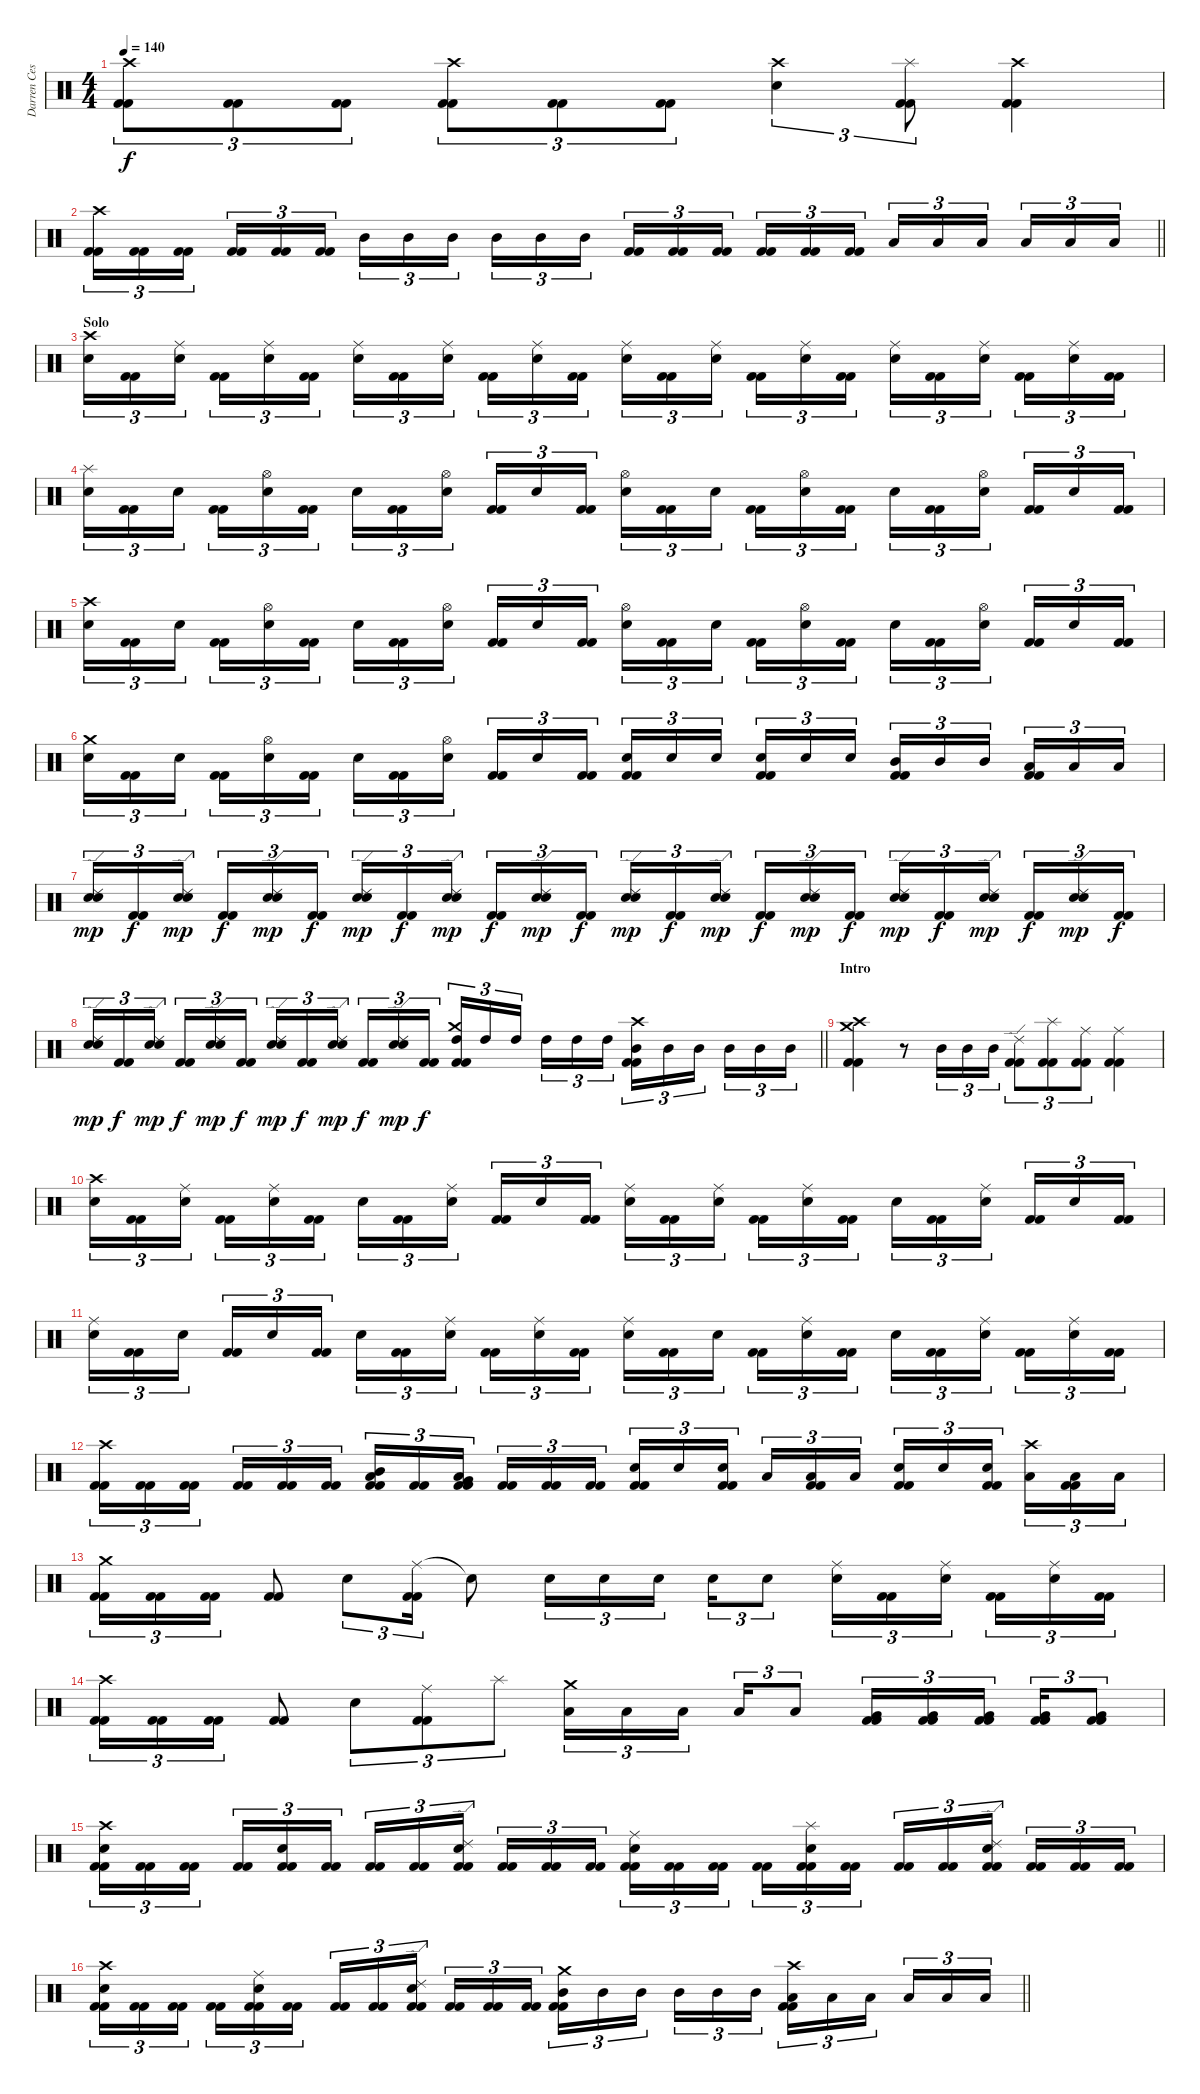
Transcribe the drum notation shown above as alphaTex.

\track ("Darren Cesca" "Darren Ces") {instrument percussion}
\staff {score}
\articulation defaults
\ts (4 4)
\tempo 140
\clef neutral
\ks c
("Crash high (hit)" "Kick (hit) 2" "Kick (hit) 2").8{tu (3 2) dy f} ("Kick (hit) 2" "Kick (hit) 2").8{tu (3 2)} ("Kick (hit) 2" "Kick (hit) 2").8{tu (3 2)} ("Crash high (hit)" "Kick (hit) 2" "Kick (hit) 2").8{tu (3 2)} ("Kick (hit) 2" "Kick (hit) 2").8{tu (3 2)} ("Kick (hit) 2" "Kick (hit) 2").8{tu (3 2)} ("Crash high (hit)" "Electric Snare (hit)").4{tu (3 2)} ("Splash (hit)" "Kick (hit) 2" "Kick (hit) 2").8{tu (3 2)} ("Crash high (hit)" "Kick (hit) 2" "Kick (hit) 2").4 |
\barLineRight lightlight
("Crash high (hit)" "Kick (hit) 2" "Kick (hit) 2").16{tu (3 2)} ("Kick (hit) 2" "Kick (hit) 2").16{tu (3 2)} ("Kick (hit) 2" "Kick (hit) 2").16{tu (3 2) beam splitsecondary} ("Kick (hit) 2" "Kick (hit) 2").16{tu (3 2)} ("Kick (hit) 2" "Kick (hit) 2").16{tu (3 2)} ("Kick (hit) 2" "Kick (hit) 2").16{tu (3 2)} "Mid Tom (hit)".16{tu (3 2)} "Mid Tom (hit)".16{tu (3 2)} "Mid Tom (hit)".16{tu (3 2) beam splitsecondary} "Mid Tom (hit)".16{tu (3 2)} "Mid Tom (hit)".16{tu (3 2)} "Mid Tom (hit)".16{tu (3 2)} ("Kick (hit) 2" "Kick (hit) 2").16{tu (3 2)} ("Kick (hit) 2" "Kick (hit) 2").16{tu (3 2)} ("Kick (hit) 2" "Kick (hit) 2").16{tu (3 2) beam splitsecondary} ("Kick (hit) 2" "Kick (hit) 2").16{tu (3 2)} ("Kick (hit) 2" "Kick (hit) 2").16{tu (3 2)} ("Kick (hit) 2" "Kick (hit) 2").16{tu (3 2)} "Low Tom (hit)".16{tu (3 2)} "Low Tom (hit)".16{tu (3 2)} "Low Tom (hit)".16{tu (3 2) beam splitsecondary} "Low Tom (hit)".16{tu (3 2)} "Low Tom (hit)".16{tu (3 2)} "Low Tom (hit)".16{tu (3 2)} |
\section ("" "Solo")
("Crash high (hit)" "Electric Snare (hit)").16{tu (3 2)} ("Kick (hit) 2" "Kick (hit) 2").16{tu (3 2)} ("Ride (middle)" "Electric Snare (hit)").16{tu (3 2) beam splitsecondary} ("Kick (hit) 2" "Kick (hit) 2").16{tu (3 2)} ("Ride (middle)" "Electric Snare (hit)").16{tu (3 2)} ("Kick (hit) 2" "Kick (hit) 2").16{tu (3 2)} ("Ride (middle)" "Electric Snare (hit)").16{tu (3 2)} ("Kick (hit) 2" "Kick (hit) 2").16{tu (3 2)} ("Ride (middle)" "Electric Snare (hit)").16{tu (3 2) beam splitsecondary} ("Kick (hit) 2" "Kick (hit) 2").16{tu (3 2)} ("Ride (middle)" "Electric Snare (hit)").16{tu (3 2)} ("Kick (hit) 2" "Kick (hit) 2").16{tu (3 2)} ("Ride (middle)" "Electric Snare (hit)").16{tu (3 2)} ("Kick (hit) 2" "Kick (hit) 2").16{tu (3 2)} ("Ride (middle)" "Electric Snare (hit)").16{tu (3 2) beam splitsecondary} ("Kick (hit) 2" "Kick (hit) 2").16{tu (3 2)} ("Ride (middle)" "Electric Snare (hit)").16{tu (3 2)} ("Kick (hit) 2" "Kick (hit) 2").16{tu (3 2)} ("Ride (middle)" "Electric Snare (hit)").16{tu (3 2)} ("Kick (hit) 2" "Kick (hit) 2").16{tu (3 2)} ("Ride (middle)" "Electric Snare (hit)").16{tu (3 2) beam splitsecondary} ("Kick (hit) 2" "Kick (hit) 2").16{tu (3 2)} ("Ride (middle)" "Electric Snare (hit)").16{tu (3 2)} ("Kick (hit) 2" "Kick (hit) 2").16{tu (3 2)} |
("Splash (hit)" "Electric Snare (hit)").16{tu (3 2)} ("Kick (hit) 2" "Kick (hit) 2").16{tu (3 2)} "Electric Snare (hit)".16{tu (3 2) beam splitsecondary} ("Kick (hit) 2" "Kick (hit) 2").16{tu (3 2)} ("Hi-Hat (open)" "Electric Snare (hit)").16{tu (3 2)} ("Kick (hit) 2" "Kick (hit) 2").16{tu (3 2)} "Electric Snare (hit)".16{tu (3 2)} ("Kick (hit) 2" "Kick (hit) 2").16{tu (3 2)} ("Hi-Hat (open)" "Electric Snare (hit)").16{tu (3 2) beam splitsecondary} ("Kick (hit) 2" "Kick (hit) 2").16{tu (3 2)} "Electric Snare (hit)".16{tu (3 2)} ("Kick (hit) 2" "Kick (hit) 2").16{tu (3 2)} ("Hi-Hat (open)" "Electric Snare (hit)").16{tu (3 2)} ("Kick (hit) 2" "Kick (hit) 2").16{tu (3 2)} "Electric Snare (hit)".16{tu (3 2) beam splitsecondary} ("Kick (hit) 2" "Kick (hit) 2").16{tu (3 2)} ("Hi-Hat (open)" "Electric Snare (hit)").16{tu (3 2)} ("Kick (hit) 2" "Kick (hit) 2").16{tu (3 2)} "Electric Snare (hit)".16{tu (3 2)} ("Kick (hit) 2" "Kick (hit) 2").16{tu (3 2)} ("Hi-Hat (open)" "Electric Snare (hit)").16{tu (3 2) beam splitsecondary} ("Kick (hit) 2" "Kick (hit) 2").16{tu (3 2)} "Electric Snare (hit)".16{tu (3 2)} ("Kick (hit) 2" "Kick (hit) 2").16{tu (3 2)} |
("Crash high (hit)" "Electric Snare (hit)").16{tu (3 2)} ("Kick (hit) 2" "Kick (hit) 2").16{tu (3 2)} "Electric Snare (hit)".16{tu (3 2) beam splitsecondary} ("Kick (hit) 2" "Kick (hit) 2").16{tu (3 2)} ("Hi-Hat (open)" "Electric Snare (hit)").16{tu (3 2)} ("Kick (hit) 2" "Kick (hit) 2").16{tu (3 2)} "Electric Snare (hit)".16{tu (3 2)} ("Kick (hit) 2" "Kick (hit) 2").16{tu (3 2)} ("Hi-Hat (open)" "Electric Snare (hit)").16{tu (3 2) beam splitsecondary} ("Kick (hit) 2" "Kick (hit) 2").16{tu (3 2)} "Electric Snare (hit)".16{tu (3 2)} ("Kick (hit) 2" "Kick (hit) 2").16{tu (3 2)} ("Hi-Hat (open)" "Electric Snare (hit)").16{tu (3 2)} ("Kick (hit) 2" "Kick (hit) 2").16{tu (3 2)} "Electric Snare (hit)".16{tu (3 2) beam splitsecondary} ("Kick (hit) 2" "Kick (hit) 2").16{tu (3 2)} ("Hi-Hat (open)" "Electric Snare (hit)").16{tu (3 2)} ("Kick (hit) 2" "Kick (hit) 2").16{tu (3 2)} "Electric Snare (hit)".16{tu (3 2)} ("Kick (hit) 2" "Kick (hit) 2").16{tu (3 2)} ("Hi-Hat (open)" "Electric Snare (hit)").16{tu (3 2) beam splitsecondary} ("Kick (hit) 2" "Kick (hit) 2").16{tu (3 2)} "Electric Snare (hit)".16{tu (3 2)} ("Kick (hit) 2" "Kick (hit) 2").16{tu (3 2)} |
("Crash medium (hit)" "Electric Snare (hit)").16{tu (3 2)} ("Kick (hit) 2" "Kick (hit) 2").16{tu (3 2)} "Electric Snare (hit)".16{tu (3 2) beam splitsecondary} ("Kick (hit) 2" "Kick (hit) 2").16{tu (3 2)} ("Hi-Hat (open)" "Electric Snare (hit)").16{tu (3 2)} ("Kick (hit) 2" "Kick (hit) 2").16{tu (3 2)} "Electric Snare (hit)".16{tu (3 2)} ("Kick (hit) 2" "Kick (hit) 2").16{tu (3 2)} ("Hi-Hat (open)" "Electric Snare (hit)").16{tu (3 2) beam splitsecondary} ("Kick (hit) 2" "Kick (hit) 2").16{tu (3 2)} "Electric Snare (hit)".16{tu (3 2)} ("Kick (hit) 2" "Kick (hit) 2").16{tu (3 2)} ("Electric Snare (hit)" "Kick (hit) 2" "Kick (hit) 2").16{tu (3 2)} "Electric Snare (hit)".16{tu (3 2)} "Electric Snare (hit)".16{tu (3 2) beam splitsecondary} ("Electric Snare (hit)" "Kick (hit) 2" "Kick (hit) 2").16{tu (3 2)} "Electric Snare (hit)".16{tu (3 2)} "Electric Snare (hit)".16{tu (3 2)} ("Mid Tom (hit)" "Kick (hit) 2" "Kick (hit) 2").16{tu (3 2)} "Mid Tom (hit)".16{tu (3 2)} "Mid Tom (hit)".16{tu (3 2) beam splitsecondary} ("Low Tom (hit)" "Kick (hit) 2" "Kick (hit) 2").16{tu (3 2)} "Low Tom (hit)".16{tu (3 2)} "Low Tom (hit)".16{tu (3 2)} |
("Ride (edge) 2" "Electric Snare (hit)" "Snare (hit) 2").16{tu (3 2) dy mp} ("Kick (hit) 2" "Kick (hit) 2").16{tu (3 2) dy f} ("Ride (edge) 2" "Electric Snare (hit)" "Snare (hit) 2").16{tu (3 2) dy mp beam splitsecondary} ("Kick (hit) 2" "Kick (hit) 2").16{tu (3 2) dy f} ("Ride (edge) 2" "Electric Snare (hit)" "Snare (hit) 2").16{tu (3 2) dy mp} ("Kick (hit) 2" "Kick (hit) 2").16{tu (3 2) dy f} ("Ride (edge) 2" "Electric Snare (hit)" "Snare (hit) 2").16{tu (3 2) dy mp} ("Kick (hit) 2" "Kick (hit) 2").16{tu (3 2) dy f} ("Ride (edge) 2" "Electric Snare (hit)" "Snare (hit) 2").16{tu (3 2) dy mp beam splitsecondary} ("Kick (hit) 2" "Kick (hit) 2").16{tu (3 2) dy f} ("Ride (edge) 2" "Electric Snare (hit)" "Snare (hit) 2").16{tu (3 2) dy mp} ("Kick (hit) 2" "Kick (hit) 2").16{tu (3 2) dy f} ("Ride (edge) 2" "Electric Snare (hit)" "Snare (hit) 2").16{tu (3 2) dy mp} ("Kick (hit) 2" "Kick (hit) 2").16{tu (3 2) dy f} ("Ride (edge) 2" "Electric Snare (hit)" "Snare (hit) 2").16{tu (3 2) dy mp beam splitsecondary} ("Kick (hit) 2" "Kick (hit) 2").16{tu (3 2) dy f} ("Ride (edge) 2" "Electric Snare (hit)" "Snare (hit) 2").16{tu (3 2) dy mp} ("Kick (hit) 2" "Kick (hit) 2").16{tu (3 2) dy f} ("Ride (edge) 2" "Electric Snare (hit)" "Snare (hit) 2").16{tu (3 2) dy mp} ("Kick (hit) 2" "Kick (hit) 2").16{tu (3 2) dy f} ("Ride (edge) 2" "Electric Snare (hit)" "Snare (hit) 2").16{tu (3 2) dy mp beam splitsecondary} ("Kick (hit) 2" "Kick (hit) 2").16{tu (3 2) dy f} ("Ride (edge) 2" "Electric Snare (hit)" "Snare (hit) 2").16{tu (3 2) dy mp} ("Kick (hit) 2" "Kick (hit) 2").16{tu (3 2) dy f} |
\barLineRight lightlight
("Ride (edge) 2" "Electric Snare (hit)" "Snare (hit) 2").16{tu (3 2) dy mp} ("Kick (hit) 2" "Kick (hit) 2").16{tu (3 2) dy f} ("Ride (edge) 2" "Electric Snare (hit)" "Snare (hit) 2").16{tu (3 2) dy mp beam splitsecondary} ("Kick (hit) 2" "Kick (hit) 2").16{tu (3 2) dy f} ("Ride (edge) 2" "Electric Snare (hit)" "Snare (hit) 2").16{tu (3 2) dy mp} ("Kick (hit) 2" "Kick (hit) 2").16{tu (3 2) dy f} ("Ride (edge) 2" "Electric Snare (hit)" "Snare (hit) 2").16{tu (3 2) dy mp} ("Kick (hit) 2" "Kick (hit) 2").16{tu (3 2) dy f} ("Ride (edge) 2" "Electric Snare (hit)" "Snare (hit) 2").16{tu (3 2) dy mp beam splitsecondary} ("Kick (hit) 2" "Kick (hit) 2").16{tu (3 2) dy f} ("Ride (edge) 2" "Electric Snare (hit)" "Snare (hit) 2").16{tu (3 2) dy mp} ("Kick (hit) 2" "Kick (hit) 2").16{tu (3 2) dy f} ("Crash medium (hit)" "High Tom (hit)" "Kick (hit) 2" "Kick (hit) 2").16{tu (3 2)} "High Tom (hit)".16{tu (3 2)} "High Tom (hit)".16{tu (3 2) beam splitsecondary} "High Tom (hit)".16{tu (3 2)} "High Tom (hit)".16{tu (3 2)} "High Tom (hit)".16{tu (3 2)} ("Crash high (hit)" "Mid Tom (hit)" "Kick (hit) 2" "Kick (hit) 2").16{tu (3 2)} "Mid Tom (hit)".16{tu (3 2)} "Mid Tom (hit)".16{tu (3 2) beam splitsecondary} "Mid Tom (hit)".16{tu (3 2)} "Mid Tom (hit)".16{tu (3 2)} "Mid Tom (hit)".16{tu (3 2)} |
\section ("" "Intro")
("Crash medium (hit)" "Crash high (hit)" "Kick (hit) 2" "Kick (hit) 2").4 r.8 "Mid Tom (hit)".16{tu (3 2)} "Mid Tom (hit)".16{tu (3 2)} "Mid Tom (hit)".16{tu (3 2)} ("Ride (edge) 2" "Kick (hit) 2" "Kick (hit) 2").8{tu (3 2)} ("Splash (hit)" "Kick (hit) 2" "Kick (hit) 2").8{tu (3 2)} ("Ride (middle)" "Kick (hit) 2" "Kick (hit) 2").8{tu (3 2)} ("Ride (middle)" "Kick (hit) 2" "Kick (hit) 2").4 |
("Crash high (hit)" "Electric Snare (hit)").16{tu (3 2)} ("Kick (hit) 2" "Kick (hit) 2").16{tu (3 2)} ("Ride (middle)" "Electric Snare (hit)").16{tu (3 2) beam splitsecondary} ("Kick (hit) 2" "Kick (hit) 2").16{tu (3 2)} ("Ride (middle)" "Electric Snare (hit)").16{tu (3 2)} ("Kick (hit) 2" "Kick (hit) 2").16{tu (3 2)} "Electric Snare (hit)".16{tu (3 2)} ("Kick (hit) 2" "Kick (hit) 2").16{tu (3 2)} ("Ride (middle)" "Electric Snare (hit)").16{tu (3 2) beam splitsecondary} ("Kick (hit) 2" "Kick (hit) 2").16{tu (3 2)} "Electric Snare (hit)".16{tu (3 2)} ("Kick (hit) 2" "Kick (hit) 2").16{tu (3 2)} ("Ride (middle)" "Electric Snare (hit)").16{tu (3 2)} ("Kick (hit) 2" "Kick (hit) 2").16{tu (3 2)} ("Ride (middle)" "Electric Snare (hit)").16{tu (3 2) beam splitsecondary} ("Kick (hit) 2" "Kick (hit) 2").16{tu (3 2)} ("Ride (middle)" "Electric Snare (hit)").16{tu (3 2)} ("Kick (hit) 2" "Kick (hit) 2").16{tu (3 2)} "Electric Snare (hit)".16{tu (3 2)} ("Kick (hit) 2" "Kick (hit) 2").16{tu (3 2)} ("Ride (middle)" "Electric Snare (hit)").16{tu (3 2) beam splitsecondary} ("Kick (hit) 2" "Kick (hit) 2").16{tu (3 2)} "Electric Snare (hit)".16{tu (3 2)} ("Kick (hit) 2" "Kick (hit) 2").16{tu (3 2)} |
("Ride (middle)" "Electric Snare (hit)").16{tu (3 2)} ("Kick (hit) 2" "Kick (hit) 2").16{tu (3 2)} "Electric Snare (hit)".16{tu (3 2) beam splitsecondary} ("Kick (hit) 2" "Kick (hit) 2").16{tu (3 2)} "Electric Snare (hit)".16{tu (3 2)} ("Kick (hit) 2" "Kick (hit) 2").16{tu (3 2)} "Electric Snare (hit)".16{tu (3 2)} ("Kick (hit) 2" "Kick (hit) 2").16{tu (3 2)} ("Ride (middle)" "Electric Snare (hit)").16{tu (3 2) beam splitsecondary} ("Kick (hit) 2" "Kick (hit) 2").16{tu (3 2)} ("Ride (middle)" "Electric Snare (hit)").16{tu (3 2)} ("Kick (hit) 2" "Kick (hit) 2").16{tu (3 2)} ("Ride (middle)" "Electric Snare (hit)").16{tu (3 2)} ("Kick (hit) 2" "Kick (hit) 2").16{tu (3 2)} "Electric Snare (hit)".16{tu (3 2) beam splitsecondary} ("Kick (hit) 2" "Kick (hit) 2").16{tu (3 2)} ("Ride (middle)" "Electric Snare (hit)").16{tu (3 2)} ("Kick (hit) 2" "Kick (hit) 2").16{tu (3 2)} "Electric Snare (hit)".16{tu (3 2)} ("Kick (hit) 2" "Kick (hit) 2").16{tu (3 2)} ("Ride (middle)" "Electric Snare (hit)").16{tu (3 2) beam splitsecondary} ("Kick (hit) 2" "Kick (hit) 2").16{tu (3 2)} ("Ride (middle)" "Electric Snare (hit)").16{tu (3 2)} ("Kick (hit) 2" "Kick (hit) 2").16{tu (3 2)} |
("Crash high (hit)" "Kick (hit) 2" "Kick (hit) 2").16{tu (3 2)} ("Kick (hit) 2" "Kick (hit) 2").16{tu (3 2)} ("Kick (hit) 2" "Kick (hit) 2").16{tu (3 2) beam splitsecondary} ("Kick (hit) 2" "Kick (hit) 2").16{tu (3 2)} ("Kick (hit) 2" "Kick (hit) 2").16{tu (3 2)} ("Kick (hit) 2" "Kick (hit) 2").16{tu (3 2)} ("Mid Tom (hit)" "Low Tom (hit)" "Kick (hit) 2" "Kick (hit) 2").16{tu (3 2)} ("Kick (hit) 2" "Kick (hit) 2").16{tu (3 2)} ("Low Tom (hit)" "Very Low Tom (hit)" "Kick (hit) 2" "Kick (hit) 2").16{tu (3 2) beam splitsecondary} ("Kick (hit) 2" "Kick (hit) 2").16{tu (3 2)} ("Kick (hit) 2" "Kick (hit) 2").16{tu (3 2)} ("Kick (hit) 2" "Kick (hit) 2").16{tu (3 2)} ("Electric Snare (hit)" "Kick (hit) 2" "Kick (hit) 2").16{tu (3 2)} "Electric Snare (hit)".16{tu (3 2)} ("Electric Snare (hit)" "Kick (hit) 2" "Kick (hit) 2").16{tu (3 2) beam splitsecondary} "Low Tom (hit)".16{tu (3 2)} ("Low Tom (hit)" "Kick (hit) 2" "Kick (hit) 2").16{tu (3 2)} "Low Tom (hit)".16{tu (3 2)} ("Electric Snare (hit)" "Kick (hit) 2" "Kick (hit) 2").16{tu (3 2)} "Electric Snare (hit)".16{tu (3 2)} ("Electric Snare (hit)" "Kick (hit) 2" "Kick (hit) 2").16{tu (3 2) beam splitsecondary} ("Crash high (hit)" "Low Tom (hit)").16{tu (3 2)} ("Low Tom (hit)" "Kick (hit) 2" "Kick (hit) 2").16{tu (3 2)} "Low Tom (hit)".16{tu (3 2)} |
("Crash medium (hit)" "Kick (hit) 2" "Kick (hit) 2").16{tu (3 2)} ("Kick (hit) 2" "Kick (hit) 2").16{tu (3 2)} ("Kick (hit) 2" "Kick (hit) 2").16{tu (3 2)} ("Kick (hit) 2" "Kick (hit) 2").8 "Electric Snare (hit)".8{tu (3 2)} ("Ride (middle)" "Kick (hit) 2" "Kick (hit) 2").16{tu (3 2)} "Snare (hit)"{t}.8 "Electric Snare (hit)".16{tu (3 2)} "Electric Snare (hit)".16{tu (3 2)} "Electric Snare (hit)".16{tu (3 2) beam splitsecondary} "Electric Snare (hit)".16{tu (3 2)} "Electric Snare (hit)".8{tu (3 2)} ("Ride (middle)" "Electric Snare (hit)").16{tu (3 2)} ("Kick (hit) 2" "Kick (hit) 2").16{tu (3 2)} ("Ride (middle)" "Electric Snare (hit)").16{tu (3 2) beam splitsecondary} ("Kick (hit) 2" "Kick (hit) 2").16{tu (3 2)} ("Ride (middle)" "Electric Snare (hit)").16{tu (3 2)} ("Kick (hit) 2" "Kick (hit) 2").16{tu (3 2)} |
("Crash high (hit)" "Kick (hit) 2" "Kick (hit) 2").16{tu (3 2)} ("Kick (hit) 2" "Kick (hit) 2").16{tu (3 2)} ("Kick (hit) 2" "Kick (hit) 2").16{tu (3 2)} ("Kick (hit) 2" "Kick (hit) 2").8 "Electric Snare (hit)".8{tu (3 2)} ("Ride (middle)" "Kick (hit) 2" "Kick (hit) 2").8{tu (3 2)} "Splash (hit)".8{tu (3 2)} ("Crash medium (hit)" "Low Tom (hit)").16{tu (3 2)} "Low Tom (hit)".16{tu (3 2)} "Low Tom (hit)".16{tu (3 2) beam splitsecondary} "Low Tom (hit)".16{tu (3 2)} "Low Tom (hit)".8{tu (3 2)} ("Very Low Tom (hit)" "Kick (hit) 2" "Kick (hit) 2").16{tu (3 2)} ("Very Low Tom (hit)" "Kick (hit) 2" "Kick (hit) 2").16{tu (3 2)} ("Very Low Tom (hit)" "Kick (hit) 2" "Kick (hit) 2").16{tu (3 2) beam splitsecondary} ("Very Low Tom (hit)" "Kick (hit) 2" "Kick (hit) 2").16{tu (3 2)} ("Very Low Tom (hit)" "Kick (hit) 2" "Kick (hit) 2").8{tu (3 2)} |
("Crash high (hit)" "Electric Snare (hit)" "Kick (hit) 2" "Kick (hit) 2").16{tu (3 2)} ("Kick (hit) 2" "Kick (hit) 2").16{tu (3 2)} ("Kick (hit) 2" "Kick (hit) 2").16{tu (3 2) beam splitsecondary} ("Kick (hit) 2" "Kick (hit) 2").16{tu (3 2)} ("Electric Snare (hit)" "Kick (hit) 2" "Kick (hit) 2").16{tu (3 2)} ("Kick (hit) 2" "Kick (hit) 2").16{tu (3 2)} ("Kick (hit) 2" "Kick (hit) 2").16{tu (3 2)} ("Kick (hit) 2" "Kick (hit) 2").16{tu (3 2)} ("Ride (edge) 2" "Electric Snare (hit)" "Kick (hit) 2" "Kick (hit) 2").16{tu (3 2) beam splitsecondary} ("Kick (hit) 2" "Kick (hit) 2").16{tu (3 2)} ("Kick (hit) 2" "Kick (hit) 2").16{tu (3 2)} ("Kick (hit) 2" "Kick (hit) 2").16{tu (3 2)} ("Ride (middle)" "Electric Snare (hit)" "Kick (hit) 2" "Kick (hit) 2").16{tu (3 2)} ("Kick (hit) 2" "Kick (hit) 2").16{tu (3 2)} ("Kick (hit) 2" "Kick (hit) 2").16{tu (3 2) beam splitsecondary} ("Kick (hit) 2" "Kick (hit) 2").16{tu (3 2)} ("Splash (hit)" "Electric Snare (hit)" "Kick (hit) 2" "Kick (hit) 2").16{tu (3 2)} ("Kick (hit) 2" "Kick (hit) 2").16{tu (3 2)} ("Kick (hit) 2" "Kick (hit) 2").16{tu (3 2)} ("Kick (hit) 2" "Kick (hit) 2").16{tu (3 2)} ("Ride (edge) 2" "Electric Snare (hit)" "Kick (hit) 2" "Kick (hit) 2").16{tu (3 2) beam splitsecondary} ("Kick (hit) 2" "Kick (hit) 2").16{tu (3 2)} ("Kick (hit) 2" "Kick (hit) 2").16{tu (3 2)} ("Kick (hit) 2" "Kick (hit) 2").16{tu (3 2)} |
\barLineRight lightlight
("Crash high (hit)" "Electric Snare (hit)" "Kick (hit) 2" "Kick (hit) 2").16{tu (3 2)} ("Kick (hit) 2" "Kick (hit) 2").16{tu (3 2)} ("Kick (hit) 2" "Kick (hit) 2").16{tu (3 2) beam splitsecondary} ("Kick (hit) 2" "Kick (hit) 2").16{tu (3 2)} ("Ride (middle)" "Electric Snare (hit)" "Kick (hit) 2" "Kick (hit) 2").16{tu (3 2)} ("Kick (hit) 2" "Kick (hit) 2").16{tu (3 2)} ("Kick (hit) 2" "Kick (hit) 2").16{tu (3 2)} ("Kick (hit) 2" "Kick (hit) 2").16{tu (3 2)} ("Ride (edge) 2" "Electric Snare (hit)" "Kick (hit) 2" "Kick (hit) 2").16{tu (3 2) beam splitsecondary} ("Kick (hit) 2" "Kick (hit) 2").16{tu (3 2)} ("Kick (hit) 2" "Kick (hit) 2").16{tu (3 2)} ("Kick (hit) 2" "Kick (hit) 2").16{tu (3 2)} ("Crash medium (hit)" "Mid Tom (hit)" "Kick (hit) 2" "Kick (hit) 2").16{tu (3 2)} "Mid Tom (hit)".16{tu (3 2)} "Mid Tom (hit)".16{tu (3 2) beam splitsecondary} "Mid Tom (hit)".16{tu (3 2)} "Mid Tom (hit)".16{tu (3 2)} "Mid Tom (hit)".16{tu (3 2)} ("Crash high (hit)" "Low Tom (hit)" "Kick (hit) 2" "Kick (hit) 2").16{tu (3 2)} "Low Tom (hit)".16{tu (3 2)} "Low Tom (hit)".16{tu (3 2) beam splitsecondary} "Low Tom (hit)".16{tu (3 2)} "Low Tom (hit)".16{tu (3 2)} "Low Tom (hit)".16{tu (3 2)}
